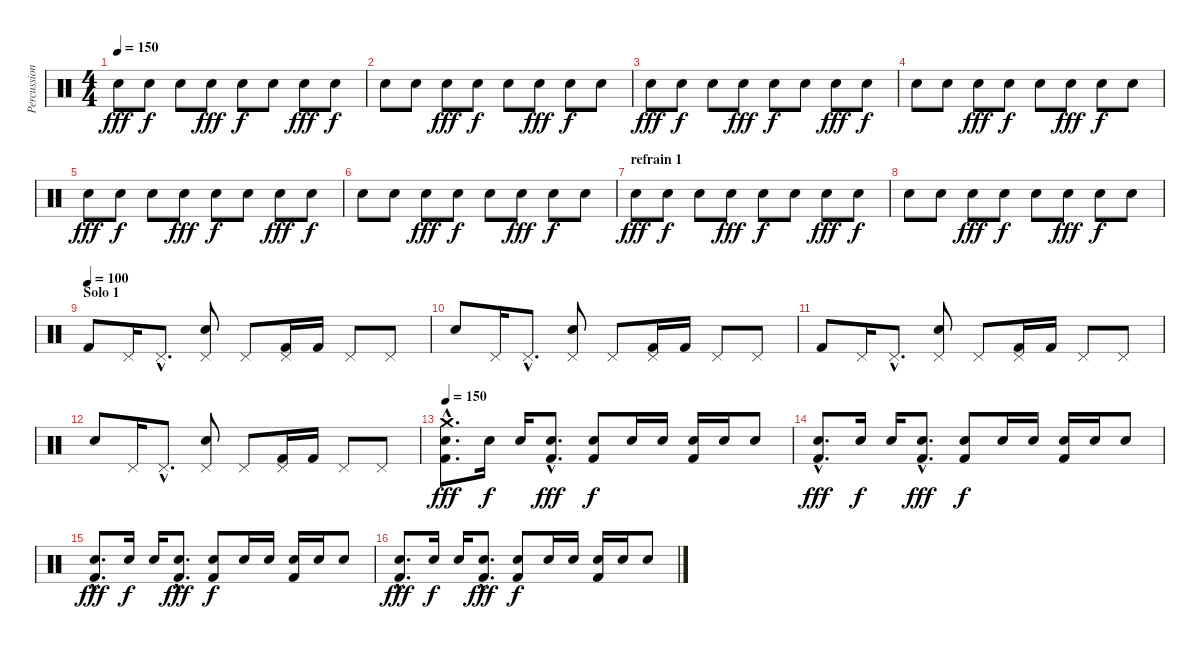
\track ("Percussions" "Percussion") {instrument percussion}
\staff {score}
\articulation defaults
\ts (4 4)
\tempo 150
\clef neutral
\ks c "Electric Snare (hit)".8{dy fff} "Electric Snare (hit)".8{dy f} "Electric Snare (hit)".8 "Electric Snare (hit)".8{dy fff} "Electric Snare (hit)".8{dy f} "Electric Snare (hit)".8 "Electric Snare (hit)".8{dy fff} "Electric Snare (hit)".8{dy f}
|
"Electric Snare (hit)".8 "Electric Snare (hit)".8 "Electric Snare (hit)".8{dy fff} "Electric Snare (hit)".8{dy f} "Electric Snare (hit)".8 "Electric Snare (hit)".8{dy fff} "Electric Snare (hit)".8{dy f} "Electric Snare (hit)".8 |
"Electric Snare (hit)".8{dy fff} "Electric Snare (hit)".8{dy f} "Electric Snare (hit)".8 "Electric Snare (hit)".8{dy fff} "Electric Snare (hit)".8{dy f} "Electric Snare (hit)".8 "Electric Snare (hit)".8{dy fff} "Electric Snare (hit)".8{dy f} |
"Electric Snare (hit)".8 "Electric Snare (hit)".8 "Electric Snare (hit)".8{dy fff} "Electric Snare (hit)".8{dy f} "Electric Snare (hit)".8 "Electric Snare (hit)".8{dy fff} "Electric Snare (hit)".8{dy f} "Electric Snare (hit)".8 |
"Electric Snare (hit)".8{dy fff} "Electric Snare (hit)".8{dy f} "Electric Snare (hit)".8 "Electric Snare (hit)".8{dy fff} "Electric Snare (hit)".8{dy f} "Electric Snare (hit)".8 "Electric Snare (hit)".8{dy fff} "Electric Snare (hit)".8{dy f} |
"Electric Snare (hit)".8 "Electric Snare (hit)".8 "Electric Snare (hit)".8{dy fff} "Electric Snare (hit)".8{dy f} "Electric Snare (hit)".8 "Electric Snare (hit)".8{dy fff} "Electric Snare (hit)".8{dy f} "Electric Snare (hit)".8 |
\section ("" "refrain 1")
"Electric Snare (hit)".8{dy fff} "Electric Snare (hit)".8{dy f} "Electric Snare (hit)".8 "Electric Snare (hit)".8{dy fff} "Electric Snare (hit)".8{dy f} "Electric Snare (hit)".8 "Electric Snare (hit)".8{dy fff} "Electric Snare (hit)".8{dy f} |
"Electric Snare (hit)".8 "Electric Snare (hit)".8 "Electric Snare (hit)".8{dy fff} "Electric Snare (hit)".8{dy f} "Electric Snare (hit)".8 "Electric Snare (hit)".8{dy fff} "Electric Snare (hit)".8{dy f} "Electric Snare (hit)".8 |
\section ("" "Solo 1")
\tempo (100)
"Kick (hit) 2".8 "Pedal Hi-Hat (hit)".16 "Pedal Hi-Hat (hit)"{hac}.8{d} ("Pedal Hi-Hat (hit)" "Electric Snare (hit)").8 "Pedal Hi-Hat (hit)".8 ("Pedal Hi-Hat (hit)" "Kick (hit) 2").16 "Kick (hit) 2".16 "Pedal Hi-Hat (hit)".8 "Pedal Hi-Hat (hit)".8 |
"Electric Snare (hit)".8 "Pedal Hi-Hat (hit)".16 "Pedal Hi-Hat (hit)"{hac}.8{d} ("Pedal Hi-Hat (hit)" "Electric Snare (hit)").8 "Pedal Hi-Hat (hit)".8 ("Pedal Hi-Hat (hit)" "Kick (hit) 2").16 "Kick (hit) 2".16 "Pedal Hi-Hat (hit)".8 "Pedal Hi-Hat (hit)".8 |
"Kick (hit) 2".8 "Pedal Hi-Hat (hit)".16 "Pedal Hi-Hat (hit)"{hac}.8{d} ("Pedal Hi-Hat (hit)" "Electric Snare (hit)").8 "Pedal Hi-Hat (hit)".8 ("Pedal Hi-Hat (hit)" "Kick (hit) 2").16 "Kick (hit) 2".16 "Pedal Hi-Hat (hit)".8 "Pedal Hi-Hat (hit)".8 |
"Electric Snare (hit)".8 "Pedal Hi-Hat (hit)".16 "Pedal Hi-Hat (hit)"{hac}.8{d} ("Pedal Hi-Hat (hit)" "Electric Snare (hit)").8 "Pedal Hi-Hat (hit)".8 ("Pedal Hi-Hat (hit)" "Kick (hit) 2").16 "Kick (hit) 2".16 "Pedal Hi-Hat (hit)".8 "Pedal Hi-Hat (hit)".8 |
\tempo 150
("Crash medium (hit)"{hac} "Electric Snare (hit)"{hac} "Kick (hit) 2"{hac}).8{d dy fff} "Electric Snare (hit)".16{dy f} "Electric Snare (hit)".16 ("Electric Snare (hit)"{hac} "Kick (hit) 2"{hac}).8{d dy fff} ("Electric Snare (hit)" "Kick (hit) 2").8{dy f} "Electric Snare (hit)".16 "Electric Snare (hit)".16 ("Electric Snare (hit)" "Kick (hit) 2").16 "Electric Snare (hit)".16 "Electric Snare (hit)".8 |
("Electric Snare (hit)"{hac} "Kick (hit) 2"{hac}).8{d dy fff} "Electric Snare (hit)".16{dy f} "Electric Snare (hit)".16 ("Electric Snare (hit)"{hac} "Kick (hit) 2"{hac}).8{d dy fff} ("Electric Snare (hit)" "Kick (hit) 2").8{dy f} "Electric Snare (hit)".16 "Electric Snare (hit)".16 ("Electric Snare (hit)" "Kick (hit) 2").16 "Electric Snare (hit)".16 "Electric Snare (hit)".8 |
("Electric Snare (hit)"{hac} "Kick (hit) 2"{hac}).8{d dy fff} "Electric Snare (hit)".16{dy f} "Electric Snare (hit)".16 ("Electric Snare (hit)"{hac} "Kick (hit) 2"{hac}).8{d dy fff} ("Electric Snare (hit)" "Kick (hit) 2").8{dy f} "Electric Snare (hit)".16 "Electric Snare (hit)".16 ("Electric Snare (hit)" "Kick (hit) 2").16 "Electric Snare (hit)".16 "Electric Snare (hit)".8 |
("Electric Snare (hit)"{hac} "Kick (hit) 2"{hac}).8{d dy fff} "Electric Snare (hit)".16{dy f} "Electric Snare (hit)".16 ("Electric Snare (hit)"{hac} "Kick (hit) 2"{hac}).8{d dy fff} ("Electric Snare (hit)" "Kick (hit) 2").8{dy f} "Electric Snare (hit)".16 "Electric Snare (hit)".16 ("Electric Snare (hit)" "Kick (hit) 2").16 "Electric Snare (hit)".16 "Electric Snare (hit)".8
